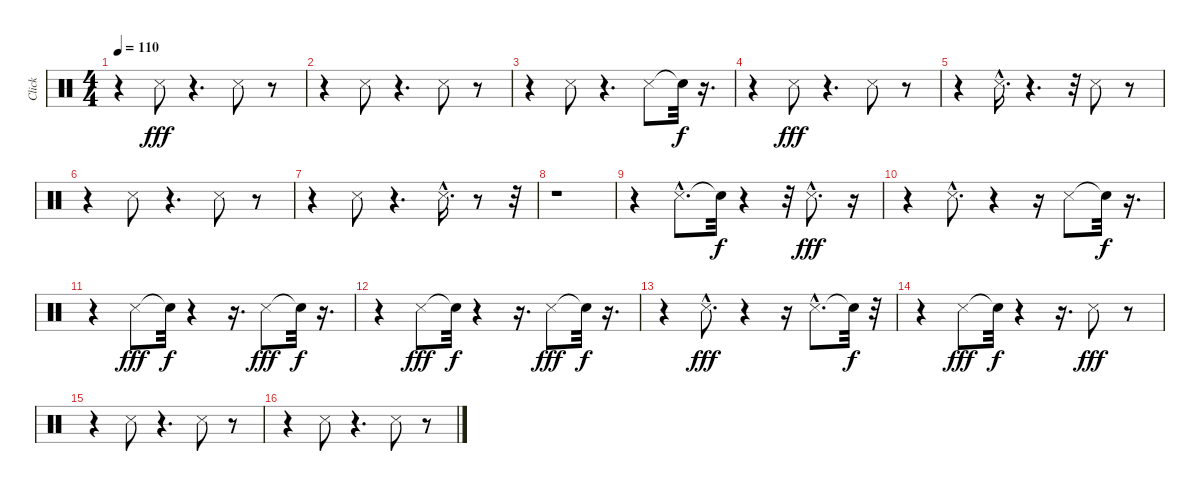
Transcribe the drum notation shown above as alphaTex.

\track ("Click" "Click") {instrument percussion}
\staff {score}
\articulation defaults
\ts (4 4)
\tempo 110
\clef neutral
\ks c
r.4{dy fff} "Snare (side stick) 3".8 r.4{d} "Snare (side stick) 3".8 r.8 |
r.4 "Snare (side stick) 3".8 r.4{d} "Snare (side stick) 3".8 r.8 |
r.4 "Snare (side stick) 3".8 r.4{d} "Snare (side stick) 3".8 "Snare (hit)"{t}.32{dy f} r.16{d} |
r.4 "Snare (side stick) 3".8{dy fff} r.4{d} "Snare (side stick) 3".8 r.8 |
r.4 "Snare (side stick) 3"{hac}.16{d} r.4{d} r.32 "Snare (side stick) 3".8 r.8 |
r.4 "Snare (side stick) 3".8 r.4{d} "Snare (side stick) 3".8 r.8 |
r.4 "Snare (side stick) 3".8 r.4{d} "Snare (side stick) 3"{hac}.16{d} r.8 r.32 |
r.1 |
r.4 "Snare (side stick) 3"{hac}.8{d} "Snare (hit)"{t}.32{dy f} r.4 r.32 "Snare (side stick) 3"{hac}.8{d dy fff} r.16 |
r.4 "Snare (side stick) 3"{hac}.8{d} r.4 r.16 "Snare (side stick) 3".8 "Snare (hit)"{t}.32{dy f} r.16{d} |
r.4 "Snare (side stick) 3".8{dy fff} "Snare (hit)"{t}.32{dy f} r.4 r.16{d} "Snare (side stick) 3".8{dy fff} "Snare (hit)"{t}.32{dy f} r.16{d} |
r.4 "Snare (side stick) 3".8{dy fff} "Snare (hit)"{t}.32{dy f} r.4 r.16{d} "Snare (side stick) 3".8{dy fff} "Snare (hit)"{t}.32{dy f} r.16{d} |
r.4 "Snare (side stick) 3"{hac}.8{d dy fff} r.4 r.16 "Snare (side stick) 3"{hac}.8{d} "Snare (hit)"{t}.32{dy f} r.32 |
r.4 "Snare (side stick) 3".8{dy fff} "Snare (hit)"{t}.32{dy f} r.4 r.16{d} "Snare (side stick) 3".8{dy fff} r.8 |
r.4 "Snare (side stick) 3".8 r.4{d} "Snare (side stick) 3".8 r.8 |
r.4 "Snare (side stick) 3".8 r.4{d} "Snare (side stick) 3".8 r.8
